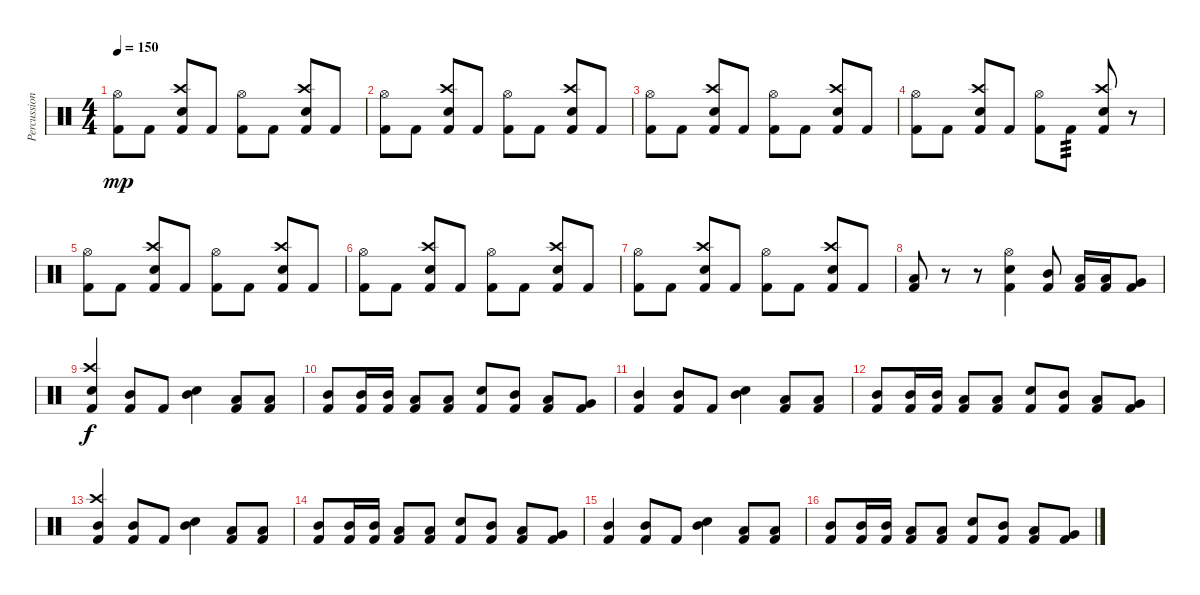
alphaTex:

\track ("Percussion" "Percussion") {instrument percussion}
\staff {score}
\articulation defaults
\ts (4 4)
\tempo 150
\clef neutral
\ks c
("Hi-Hat (open)" "Kick (hit) 2").8{dy mp} "Kick (hit) 2".8 ("Crash high (hit)" "Electric Snare (hit)" "Kick (hit) 2").8 "Kick (hit) 2".8 ("Hi-Hat (open)" "Kick (hit) 2").8 "Kick (hit) 2".8 ("Crash high (hit)" "Electric Snare (hit)" "Kick (hit) 2").8 "Kick (hit) 2".8 |
("Hi-Hat (open)" "Kick (hit) 2").8 "Kick (hit) 2".8 ("Crash high (hit)" "Electric Snare (hit)" "Kick (hit) 2").8 "Kick (hit) 2".8 ("Hi-Hat (open)" "Kick (hit) 2").8 "Kick (hit) 2".8 ("Crash high (hit)" "Electric Snare (hit)" "Kick (hit) 2").8 "Kick (hit) 2".8 |
("Hi-Hat (open)" "Kick (hit) 2").8 "Kick (hit) 2".8 ("Crash high (hit)" "Electric Snare (hit)" "Kick (hit) 2").8 "Kick (hit) 2".8 ("Hi-Hat (open)" "Kick (hit) 2").8 "Kick (hit) 2".8 ("Crash high (hit)" "Electric Snare (hit)" "Kick (hit) 2").8 "Kick (hit) 2".8 |
("Hi-Hat (open)" "Kick (hit) 2").8 "Kick (hit) 2".8 ("Crash high (hit)" "Electric Snare (hit)" "Kick (hit) 2").8 "Kick (hit) 2".8 ("Hi-Hat (open)" "Kick (hit) 2").8 "Kick (hit) 2".8{tp 3} ("Crash high (hit)" "Electric Snare (hit)" "Kick (hit) 2").8 r.8 |
("Hi-Hat (open)" "Kick (hit) 2").8 "Kick (hit) 2".8 ("Crash high (hit)" "Electric Snare (hit)" "Kick (hit) 2").8 "Kick (hit) 2".8 ("Hi-Hat (open)" "Kick (hit) 2").8 "Kick (hit) 2".8 ("Crash high (hit)" "Electric Snare (hit)" "Kick (hit) 2").8 "Kick (hit) 2".8 |
("Hi-Hat (open)" "Kick (hit) 2").8 "Kick (hit) 2".8 ("Crash high (hit)" "Electric Snare (hit)" "Kick (hit) 2").8 "Kick (hit) 2".8 ("Hi-Hat (open)" "Kick (hit) 2").8 "Kick (hit) 2".8 ("Crash high (hit)" "Electric Snare (hit)" "Kick (hit) 2").8 "Kick (hit) 2".8 |
("Hi-Hat (open)" "Kick (hit) 2").8 "Kick (hit) 2".8 ("Crash high (hit)" "Electric Snare (hit)" "Kick (hit) 2").8 "Kick (hit) 2".8 ("Hi-Hat (open)" "Kick (hit) 2").8 "Kick (hit) 2".8 ("Crash high (hit)" "Electric Snare (hit)" "Kick (hit) 2").8 "Kick (hit) 2".8 |
("Low Floor Tom (hit)" "Kick (hit) 2").8 r.8 r.8 ("Hi-Hat (open)" "Electric Snare (hit)" "Kick (hit) 2").4 ("Mid Tom (hit)" "Kick (hit) 2").8 ("Low Tom (hit)" "Kick (hit) 2").16 ("Low Tom (hit)" "Kick (hit) 2").16 ("Very Low Tom (hit)" "Kick (hit) 2").8 |
("Crash high (hit)" "Electric Snare (hit)" "Kick (hit) 2").4{dy f} ("Mid Tom (hit)" "Kick (hit) 2").8 "Kick (hit) 2".8 ("Mid Tom (hit)" "Electric Snare (hit)").4 ("Low Tom (hit)" "Kick (hit) 2").8 ("Low Tom (hit)" "Kick (hit) 2").8 |
("Mid Tom (hit)" "Kick (hit) 2").8 ("Mid Tom (hit)" "Kick (hit) 2").16 ("Mid Tom (hit)" "Kick (hit) 2").16 ("Low Tom (hit)" "Kick (hit) 2").8 ("Low Tom (hit)" "Kick (hit) 2").8 ("Electric Snare (hit)" "Kick (hit) 2").8 ("Mid Tom (hit)" "Kick (hit) 2").8 ("Low Tom (hit)" "Kick (hit) 2").8 ("Very Low Tom (hit)" "Kick (hit) 2").8 |
("Mid Tom (hit)" "Kick (hit) 2").4 ("Mid Tom (hit)" "Kick (hit) 2").8 "Kick (hit) 2".8 ("Mid Tom (hit)" "Electric Snare (hit)").4 ("Low Tom (hit)" "Kick (hit) 2").8 ("Low Tom (hit)" "Kick (hit) 2").8 |
("Mid Tom (hit)" "Kick (hit) 2").8 ("Mid Tom (hit)" "Kick (hit) 2").16 ("Mid Tom (hit)" "Kick (hit) 2").16 ("Low Tom (hit)" "Kick (hit) 2").8 ("Low Tom (hit)" "Kick (hit) 2").8 ("Electric Snare (hit)" "Kick (hit) 2").8 ("Mid Tom (hit)" "Kick (hit) 2").8 ("Low Tom (hit)" "Kick (hit) 2").8 ("Very Low Tom (hit)" "Kick (hit) 2").8 |
("Crash high (hit)" "Mid Tom (hit)" "Kick (hit) 2").4 ("Mid Tom (hit)" "Kick (hit) 2").8 "Kick (hit) 2".8 ("Mid Tom (hit)" "Electric Snare (hit)").4 ("Low Tom (hit)" "Kick (hit) 2").8 ("Low Tom (hit)" "Kick (hit) 2").8 |
("Mid Tom (hit)" "Kick (hit) 2").8 ("Mid Tom (hit)" "Kick (hit) 2").16 ("Mid Tom (hit)" "Kick (hit) 2").16 ("Low Tom (hit)" "Kick (hit) 2").8 ("Low Tom (hit)" "Kick (hit) 2").8 ("Electric Snare (hit)" "Kick (hit) 2").8 ("Mid Tom (hit)" "Kick (hit) 2").8 ("Low Tom (hit)" "Kick (hit) 2").8 ("Very Low Tom (hit)" "Kick (hit) 2").8 |
("Mid Tom (hit)" "Kick (hit) 2").4 ("Mid Tom (hit)" "Kick (hit) 2").8 "Kick (hit) 2".8 ("Mid Tom (hit)" "Electric Snare (hit)").4 ("Low Tom (hit)" "Kick (hit) 2").8 ("Low Tom (hit)" "Kick (hit) 2").8 |
("Mid Tom (hit)" "Kick (hit) 2").8 ("Mid Tom (hit)" "Kick (hit) 2").16 ("Mid Tom (hit)" "Kick (hit) 2").16 ("Low Tom (hit)" "Kick (hit) 2").8 ("Low Tom (hit)" "Kick (hit) 2").8 ("Electric Snare (hit)" "Kick (hit) 2").8 ("Mid Tom (hit)" "Kick (hit) 2").8 ("Low Tom (hit)" "Kick (hit) 2").8 ("Very Low Tom (hit)" "Kick (hit) 2").8
